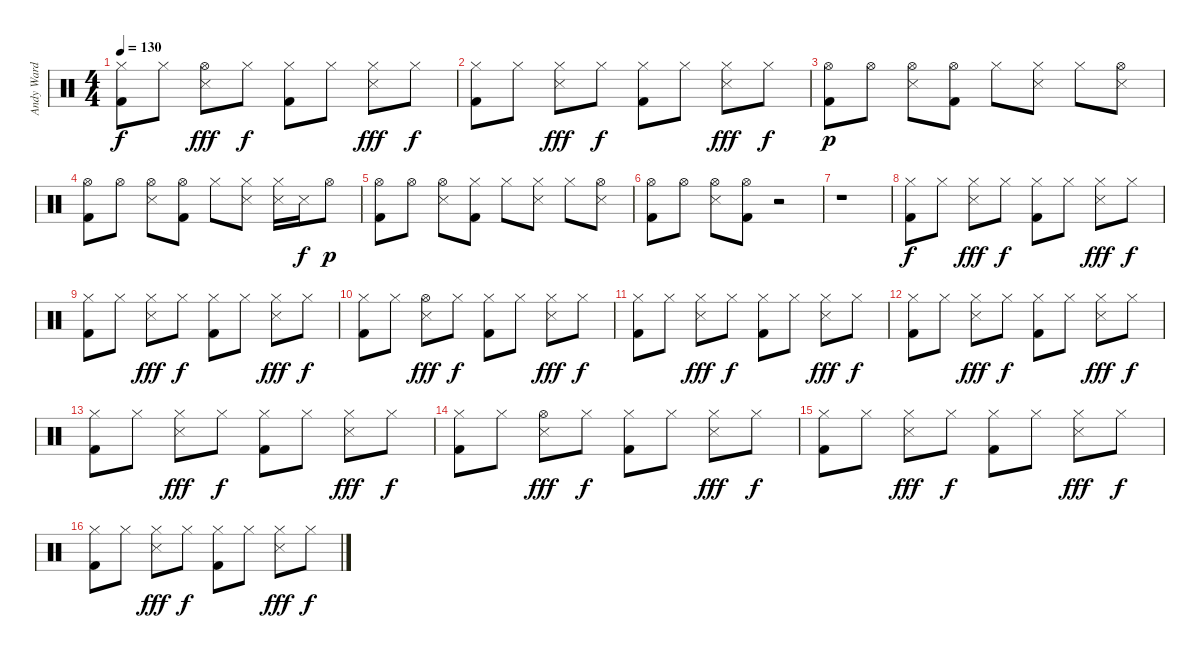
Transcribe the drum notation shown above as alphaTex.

\track ("Andy Ward" "Andy Ward") {instrument percussion}
\staff {score}
\articulation defaults
\ts (4 4)
\tempo 130
\clef neutral
\ks c
("Hi-Hat (closed)" "Kick (hit) 2").8{dy f} "Hi-Hat (closed)".8 ("Hi-Hat (open)" "Snare (side stick) 3").8{dy fff} "Hi-Hat (closed)".8{dy f} ("Hi-Hat (closed)" "Kick (hit) 2").8 "Hi-Hat (closed)".8 ("Hi-Hat (closed)" "Snare (side stick) 3").8{dy fff} "Hi-Hat (closed)".8{dy f} |
("Hi-Hat (closed)" "Kick (hit) 2").8 "Hi-Hat (closed)".8 ("Hi-Hat (closed)" "Snare (side stick) 3").8{dy fff} "Hi-Hat (closed)".8{dy f} ("Hi-Hat (closed)" "Kick (hit) 2").8 "Hi-Hat (closed)".8 ("Hi-Hat (closed)" "Snare (side stick) 3").8{dy fff} "Hi-Hat (closed)".8{dy f} |
("Hi-Hat (open)" "Kick (hit) 2").8{dy p} "Hi-Hat (open)".8 ("Hi-Hat (open)" "Snare (side stick) 3").8 ("Hi-Hat (open)" "Kick (hit) 2").8 "Hi-Hat (closed)".8 ("Hi-Hat (closed)" "Snare (side stick) 3").8 "Hi-Hat (closed)".8 ("Hi-Hat (open)" "Snare (side stick) 3").8 |
("Hi-Hat (open)" "Kick (hit) 2").8 "Hi-Hat (open)".8 ("Hi-Hat (open)" "Snare (side stick) 3").8 ("Hi-Hat (open)" "Kick (hit) 2").8 "Hi-Hat (closed)".8 ("Hi-Hat (closed)" "Snare (side stick) 3").8 ("Hi-Hat (closed)" "Snare (side stick) 3").16 "Snare (side stick) 3".16{dy f} "Hi-Hat (open)".8{dy p} |
("Hi-Hat (open)" "Kick (hit) 2").8 "Hi-Hat (open)".8 ("Hi-Hat (open)" "Snare (side stick) 3").8 ("Hi-Hat (closed)" "Kick (hit) 2").8 "Hi-Hat (closed)".8 ("Hi-Hat (closed)" "Snare (side stick) 3").8 "Hi-Hat (closed)".8 ("Hi-Hat (open)" "Snare (side stick) 3").8 |
("Hi-Hat (open)" "Kick (hit) 2").8 "Hi-Hat (open)".8 ("Hi-Hat (open)" "Snare (side stick) 3").8 ("Hi-Hat (open)" "Kick (hit) 2").8 r.2 |
r.1 |
("Hi-Hat (closed)" "Kick (hit) 2").8{dy f} "Hi-Hat (closed)".8 ("Hi-Hat (closed)" "Snare (side stick) 3").8{dy fff} "Hi-Hat (closed)".8{dy f} ("Hi-Hat (closed)" "Kick (hit) 2").8 "Hi-Hat (closed)".8 ("Hi-Hat (closed)" "Snare (side stick) 3").8{dy fff} "Hi-Hat (closed)".8{dy f} |
("Hi-Hat (closed)" "Kick (hit) 2").8 "Hi-Hat (closed)".8 ("Hi-Hat (closed)" "Snare (side stick) 3").8{dy fff} "Hi-Hat (closed)".8{dy f} ("Hi-Hat (closed)" "Kick (hit) 2").8 "Hi-Hat (closed)".8 ("Hi-Hat (closed)" "Snare (side stick) 3").8{dy fff} "Hi-Hat (closed)".8{dy f} |
("Hi-Hat (closed)" "Kick (hit) 2").8 "Hi-Hat (closed)".8 ("Hi-Hat (open)" "Snare (side stick) 3").8{dy fff} "Hi-Hat (closed)".8{dy f} ("Hi-Hat (closed)" "Kick (hit) 2").8 "Hi-Hat (closed)".8 ("Hi-Hat (closed)" "Snare (side stick) 3").8{dy fff} "Hi-Hat (closed)".8{dy f} |
("Hi-Hat (closed)" "Kick (hit) 2").8 "Hi-Hat (closed)".8 ("Hi-Hat (closed)" "Snare (side stick) 3").8{dy fff} "Hi-Hat (closed)".8{dy f} ("Hi-Hat (closed)" "Kick (hit) 2").8 "Hi-Hat (closed)".8 ("Hi-Hat (closed)" "Snare (side stick) 3").8{dy fff} "Hi-Hat (closed)".8{dy f} |
("Hi-Hat (closed)" "Kick (hit) 2").8 "Hi-Hat (closed)".8 ("Hi-Hat (closed)" "Snare (side stick) 3").8{dy fff} "Hi-Hat (closed)".8{dy f} ("Hi-Hat (closed)" "Kick (hit) 2").8 "Hi-Hat (closed)".8 ("Hi-Hat (closed)" "Snare (side stick) 3").8{dy fff} "Hi-Hat (closed)".8{dy f} |
("Hi-Hat (closed)" "Kick (hit) 2").8 "Hi-Hat (closed)".8 ("Hi-Hat (closed)" "Snare (side stick) 3").8{dy fff} "Hi-Hat (closed)".8{dy f} ("Hi-Hat (closed)" "Kick (hit) 2").8 "Hi-Hat (closed)".8 ("Hi-Hat (closed)" "Snare (side stick) 3").8{dy fff} "Hi-Hat (closed)".8{dy f} |
("Hi-Hat (closed)" "Kick (hit) 2").8 "Hi-Hat (closed)".8 ("Hi-Hat (open)" "Snare (side stick) 3").8{dy fff} "Hi-Hat (closed)".8{dy f} ("Hi-Hat (closed)" "Kick (hit) 2").8 "Hi-Hat (closed)".8 ("Hi-Hat (closed)" "Snare (side stick) 3").8{dy fff} "Hi-Hat (closed)".8{dy f} |
("Hi-Hat (closed)" "Kick (hit) 2").8 "Hi-Hat (closed)".8 ("Hi-Hat (closed)" "Snare (side stick) 3").8{dy fff} "Hi-Hat (closed)".8{dy f} ("Hi-Hat (closed)" "Kick (hit) 2").8 "Hi-Hat (closed)".8 ("Hi-Hat (closed)" "Snare (side stick) 3").8{dy fff} "Hi-Hat (closed)".8{dy f} |
("Hi-Hat (closed)" "Kick (hit) 2").8 "Hi-Hat (closed)".8 ("Hi-Hat (closed)" "Snare (side stick) 3").8{dy fff} "Hi-Hat (closed)".8{dy f} ("Hi-Hat (closed)" "Kick (hit) 2").8 "Hi-Hat (closed)".8 ("Hi-Hat (closed)" "Snare (side stick) 3").8{dy fff} "Hi-Hat (closed)".8{dy f}
